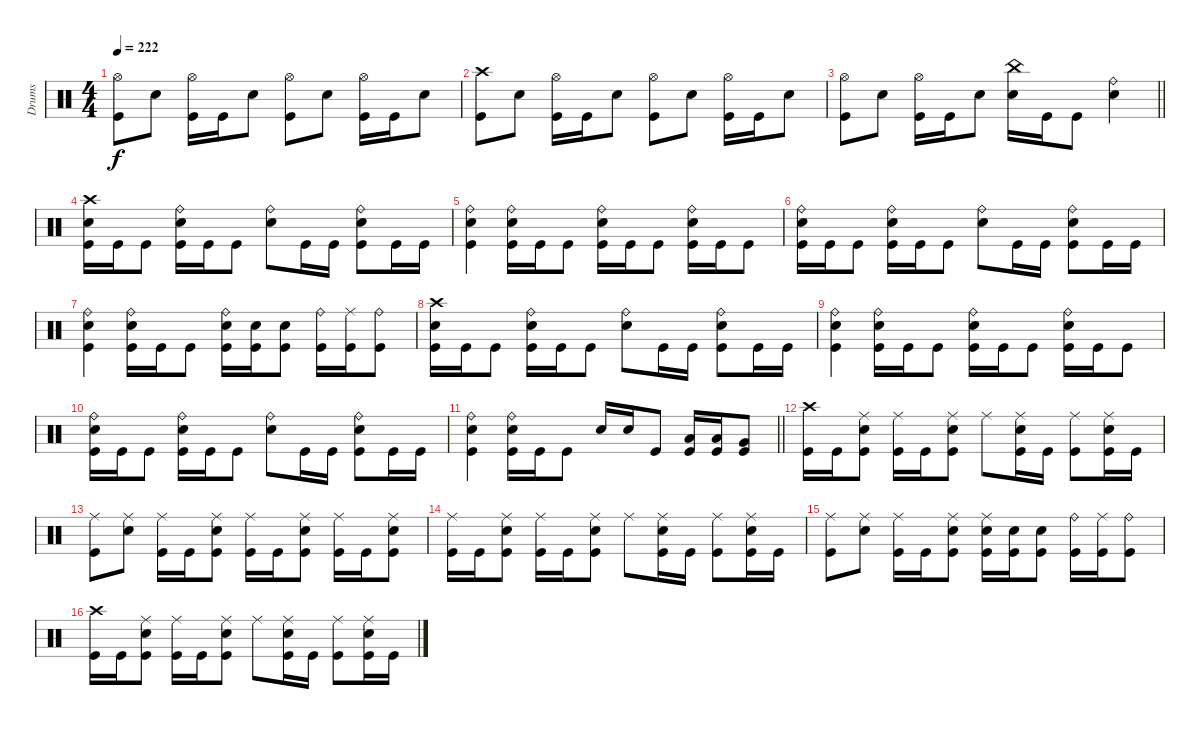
\track ("Drums" "Drums") {instrument percussion}
\staff
\articulation defaults
\ts (4 4)
\tempo 222
\clef neutral
\ks c
("Hi-Hat (open)" "Kick (hit)").8{dy f} "Electric Snare (hit)".8 ("Hi-Hat (open)" "Kick (hit)").16 "Kick (hit)".16 "Electric Snare (hit)".8 ("Hi-Hat (open)" "Kick (hit)").8 "Electric Snare (hit)".8 ("Hi-Hat (open)" "Kick (hit)").16 "Kick (hit)".16 "Electric Snare (hit)".8 |
("Crash high (hit)" "Kick (hit)").8 "Electric Snare (hit)".8 ("Hi-Hat (open)" "Kick (hit)").16 "Kick (hit)".16 "Electric Snare (hit)".8 ("Hi-Hat (open)" "Kick (hit)").8 "Electric Snare (hit)".8 ("Hi-Hat (open)" "Kick (hit)").16 "Kick (hit)".16 "Electric Snare (hit)".8 |
\barLineRight lightlight
("Hi-Hat (open)" "Kick (hit)").8 "Electric Snare (hit)".8 ("Hi-Hat (open)" "Kick (hit)").16 "Kick (hit)".16 "Electric Snare (hit)".8 ("China (hit)" "Electric Snare (hit)").16 "Kick (hit)".16 "Kick (hit)".8 ("Ride (bell)" "Electric Snare (hit)").4 |
\section ("" "")
("Crash high (hit)" "Electric Snare (hit)" "Kick (hit)").16 "Kick (hit)".16 "Kick (hit)".8 ("Ride (bell)" "Electric Snare (hit)" "Kick (hit)").16 "Kick (hit)".16 "Kick (hit)".8 ("Ride (bell)" "Electric Snare (hit)").8 "Kick (hit)".16 "Kick (hit)".16 ("Ride (bell)" "Electric Snare (hit)" "Kick (hit)").8 "Kick (hit)".16 "Kick (hit)".16 |
("Ride (bell)" "Electric Snare (hit)" "Kick (hit)").4 ("Ride (bell)" "Electric Snare (hit)" "Kick (hit)").16 "Kick (hit)".16 "Kick (hit)".8 ("Ride (bell)" "Electric Snare (hit)" "Kick (hit)").16 "Kick (hit)".16 "Kick (hit)".8 ("Ride (bell)" "Electric Snare (hit)" "Kick (hit)").16 "Kick (hit)".16 "Kick (hit)".8 |
("Ride (bell)" "Electric Snare (hit)" "Kick (hit)").16 "Kick (hit)".16 "Kick (hit)".8 ("Ride (bell)" "Electric Snare (hit)" "Kick (hit)").16 "Kick (hit)".16 "Kick (hit)".8 ("Ride (bell)" "Electric Snare (hit)").8 "Kick (hit)".16 "Kick (hit)".16 ("Ride (bell)" "Electric Snare (hit)" "Kick (hit)").8 "Kick (hit)".16 "Kick (hit)".16 |
("Ride (bell)" "Electric Snare (hit)" "Kick (hit)").4 ("Ride (bell)" "Electric Snare (hit)" "Kick (hit)").16 "Kick (hit)".16 "Kick (hit)".8 ("Ride (bell)" "Electric Snare (hit)" "Kick (hit)").16 ("Electric Snare (hit)" "Kick (hit)").16 ("Electric Snare (hit)" "Kick (hit)").8 ("Ride (bell)" "Kick (hit)").16 ("Ride (middle)" "Kick (hit)").16 ("Ride (bell)" "Kick (hit)").8 |
("Crash high (hit)" "Electric Snare (hit)" "Kick (hit)").16 "Kick (hit)".16 "Kick (hit)".8 ("Ride (bell)" "Electric Snare (hit)" "Kick (hit)").16 "Kick (hit)".16 "Kick (hit)".8 ("Ride (bell)" "Electric Snare (hit)").8 "Kick (hit)".16 "Kick (hit)".16 ("Ride (bell)" "Electric Snare (hit)" "Kick (hit)").8 "Kick (hit)".16 "Kick (hit)".16 |
("Ride (bell)" "Electric Snare (hit)" "Kick (hit)").4 ("Ride (bell)" "Electric Snare (hit)" "Kick (hit)").16 "Kick (hit)".16 "Kick (hit)".8 ("Ride (bell)" "Electric Snare (hit)" "Kick (hit)").16 "Kick (hit)".16 "Kick (hit)".8 ("Ride (bell)" "Electric Snare (hit)" "Kick (hit)").16 "Kick (hit)".16 "Kick (hit)".8 |
("Ride (bell)" "Electric Snare (hit)" "Kick (hit)").16 "Kick (hit)".16 "Kick (hit)".8 ("Ride (bell)" "Electric Snare (hit)" "Kick (hit)").16 "Kick (hit)".16 "Kick (hit)".8 ("Ride (bell)" "Electric Snare (hit)").8 "Kick (hit)".16 "Kick (hit)".16 ("Ride (bell)" "Electric Snare (hit)" "Kick (hit)").8 "Kick (hit)".16 "Kick (hit)".16 |
\barLineRight lightlight
("Ride (bell)" "Electric Snare (hit)" "Kick (hit)").4 ("Ride (bell)" "Electric Snare (hit)" "Kick (hit)").16 "Kick (hit)".16 "Kick (hit)".8 "Electric Snare (hit)".16 "Electric Snare (hit)".16 "Kick (hit)".8 ("Low Tom (hit)" "Kick (hit)").16 ("Low Tom (hit)" "Kick (hit)").16 ("Very Low Tom (hit)" "Kick (hit)").8 |
("Crash high (hit)" "Kick (hit)").16 "Kick (hit)".16 ("Ride (middle)" "Electric Snare (hit)" "Kick (hit)").8 ("Ride (middle)" "Kick (hit)").16 "Kick (hit)".16 ("Ride (middle)" "Electric Snare (hit)" "Kick (hit)").8 "Ride (middle)".8 ("Ride (middle)" "Electric Snare (hit)" "Kick (hit)").16 "Kick (hit)".16 ("Ride (middle)" "Kick (hit)").8 ("Ride (middle)" "Electric Snare (hit)" "Kick (hit)").16 "Kick (hit)".16 |
("Ride (middle)" "Kick (hit)").8 ("Ride (middle)" "Electric Snare (hit)").8 ("Ride (middle)" "Kick (hit)").16 "Kick (hit)".16 ("Ride (middle)" "Electric Snare (hit)" "Kick (hit)").8 ("Ride (middle)" "Kick (hit)").16 "Kick (hit)".16 ("Ride (middle)" "Electric Snare (hit)" "Kick (hit)").8 ("Ride (middle)" "Kick (hit)").16 "Kick (hit)".16 ("Ride (middle)" "Electric Snare (hit)" "Kick (hit)").8 |
("Ride (middle)" "Kick (hit)").16 "Kick (hit)".16 ("Ride (middle)" "Electric Snare (hit)" "Kick (hit)").8 ("Ride (middle)" "Kick (hit)").16 "Kick (hit)".16 ("Ride (middle)" "Electric Snare (hit)" "Kick (hit)").8 "Ride (middle)".8 ("Ride (middle)" "Electric Snare (hit)" "Kick (hit)").16 "Kick (hit)".16 ("Ride (middle)" "Kick (hit)").8 ("Ride (middle)" "Electric Snare (hit)" "Kick (hit)").16 "Kick (hit)".16 |
("Ride (middle)" "Kick (hit)").8 ("Ride (middle)" "Electric Snare (hit)").8 ("Ride (middle)" "Kick (hit)").16 "Kick (hit)".16 ("Ride (middle)" "Electric Snare (hit)" "Kick (hit)").8 ("Ride (middle)" "Electric Snare (hit)" "Kick (hit)").16 ("Electric Snare (hit)" "Kick (hit)").16 ("Electric Snare (hit)" "Kick (hit)").8 ("Ride (bell)" "Kick (hit)").16 ("Ride (middle)" "Kick (hit)").16 ("Ride (bell)" "Kick (hit)").8 |
("Crash high (hit)" "Kick (hit)").16 "Kick (hit)".16 ("Ride (middle)" "Electric Snare (hit)" "Kick (hit)").8 ("Ride (middle)" "Kick (hit)").16 "Kick (hit)".16 ("Ride (middle)" "Electric Snare (hit)" "Kick (hit)").8 "Ride (middle)".8 ("Ride (middle)" "Electric Snare (hit)" "Kick (hit)").16 "Kick (hit)".16 ("Ride (middle)" "Kick (hit)").8 ("Ride (middle)" "Electric Snare (hit)" "Kick (hit)").16 "Kick (hit)".16
